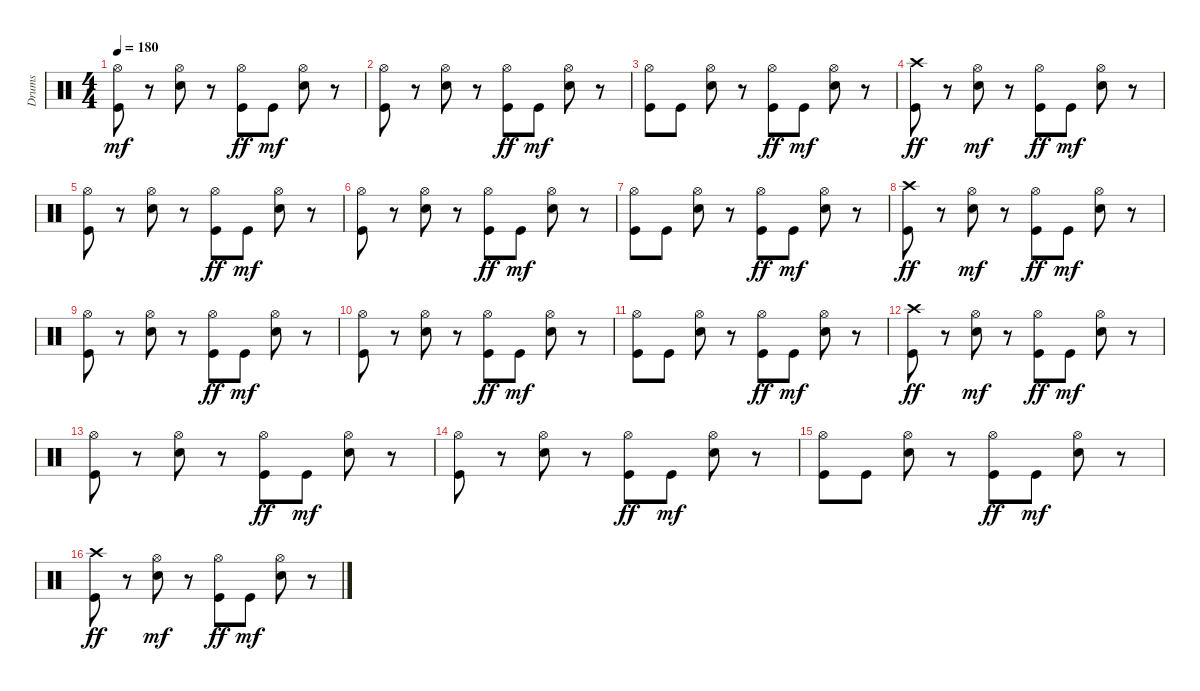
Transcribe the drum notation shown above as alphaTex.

\track ("Drums" "Drums") {instrument percussion}
\staff {score}
\articulation defaults
\ts (4 4)
\tempo 180
\clef neutral
\ks c
("Kick (hit)" "Hi-Hat (open)").8{dy mf} r.8 ("Hi-Hat (open)" "Snare (hit) 2").8 r.8 ("Hi-Hat (open)" "Kick (hit)").8{dy ff} "Kick (hit)".8{dy mf} ("Snare (hit) 2" "Hi-Hat (open)").8 r.8 |
("Kick (hit)" "Hi-Hat (open)").8 r.8 ("Hi-Hat (open)" "Snare (hit) 2").8 r.8 ("Hi-Hat (open)" "Kick (hit)").8{dy ff} "Kick (hit)".8{dy mf} ("Snare (hit) 2" "Hi-Hat (open)").8 r.8 |
("Kick (hit)" "Hi-Hat (open)").8 "Kick (hit)".8 ("Hi-Hat (open)" "Snare (hit) 2").8 r.8 ("Hi-Hat (open)" "Kick (hit)").8{dy ff} "Kick (hit)".8{dy mf} ("Hi-Hat (open)" "Snare (hit) 2").8 r.8 |
("Crash high (hit)" "Kick (hit)").8{dy ff} r.8 ("Hi-Hat (open)" "Snare (hit) 2").8{dy mf} r.8 ("Hi-Hat (open)" "Kick (hit)").8{dy ff} "Kick (hit)".8{dy mf} ("Hi-Hat (open)" "Snare (hit) 2").8 r.8 |
("Kick (hit)" "Hi-Hat (open)").8 r.8 ("Hi-Hat (open)" "Snare (hit) 2").8 r.8 ("Hi-Hat (open)" "Kick (hit)").8{dy ff} "Kick (hit)".8{dy mf} ("Snare (hit) 2" "Hi-Hat (open)").8 r.8 |
("Kick (hit)" "Hi-Hat (open)").8 r.8 ("Hi-Hat (open)" "Snare (hit) 2").8 r.8 ("Hi-Hat (open)" "Kick (hit)").8{dy ff} "Kick (hit)".8{dy mf} ("Snare (hit) 2" "Hi-Hat (open)").8 r.8 |
("Kick (hit)" "Hi-Hat (open)").8 "Kick (hit)".8 ("Hi-Hat (open)" "Snare (hit) 2").8 r.8 ("Hi-Hat (open)" "Kick (hit)").8{dy ff} "Kick (hit)".8{dy mf} ("Hi-Hat (open)" "Snare (hit) 2").8 r.8 |
("Crash high (hit)" "Kick (hit)").8{dy ff} r.8 ("Hi-Hat (open)" "Snare (hit) 2").8{dy mf} r.8 ("Hi-Hat (open)" "Kick (hit)").8{dy ff} "Kick (hit)".8{dy mf} ("Hi-Hat (open)" "Snare (hit) 2").8 r.8 |
("Kick (hit)" "Hi-Hat (open)").8 r.8 ("Hi-Hat (open)" "Snare (hit) 2").8 r.8 ("Hi-Hat (open)" "Kick (hit)").8{dy ff} "Kick (hit)".8{dy mf} ("Snare (hit) 2" "Hi-Hat (open)").8 r.8 |
("Kick (hit)" "Hi-Hat (open)").8 r.8 ("Hi-Hat (open)" "Snare (hit) 2").8 r.8 ("Hi-Hat (open)" "Kick (hit)").8{dy ff} "Kick (hit)".8{dy mf} ("Snare (hit) 2" "Hi-Hat (open)").8 r.8 |
("Kick (hit)" "Hi-Hat (open)").8 "Kick (hit)".8 ("Hi-Hat (open)" "Snare (hit) 2").8 r.8 ("Hi-Hat (open)" "Kick (hit)").8{dy ff} "Kick (hit)".8{dy mf} ("Hi-Hat (open)" "Snare (hit) 2").8 r.8 |
("Crash high (hit)" "Kick (hit)").8{dy ff} r.8 ("Hi-Hat (open)" "Snare (hit) 2").8{dy mf} r.8 ("Hi-Hat (open)" "Kick (hit)").8{dy ff} "Kick (hit)".8{dy mf} ("Hi-Hat (open)" "Snare (hit) 2").8 r.8 |
("Kick (hit)" "Hi-Hat (open)").8 r.8 ("Hi-Hat (open)" "Snare (hit) 2").8 r.8 ("Hi-Hat (open)" "Kick (hit)").8{dy ff} "Kick (hit)".8{dy mf} ("Snare (hit) 2" "Hi-Hat (open)").8 r.8 |
("Kick (hit)" "Hi-Hat (open)").8 r.8 ("Hi-Hat (open)" "Snare (hit) 2").8 r.8 ("Hi-Hat (open)" "Kick (hit)").8{dy ff} "Kick (hit)".8{dy mf} ("Snare (hit) 2" "Hi-Hat (open)").8 r.8 |
("Kick (hit)" "Hi-Hat (open)").8 "Kick (hit)".8 ("Hi-Hat (open)" "Snare (hit) 2").8 r.8 ("Hi-Hat (open)" "Kick (hit)").8{dy ff} "Kick (hit)".8{dy mf} ("Hi-Hat (open)" "Snare (hit) 2").8 r.8 |
("Crash high (hit)" "Kick (hit)").8{dy ff} r.8 ("Hi-Hat (open)" "Snare (hit) 2").8{dy mf} r.8 ("Hi-Hat (open)" "Kick (hit)").8{dy ff} "Kick (hit)".8{dy mf} ("Hi-Hat (open)" "Snare (hit) 2").8 r.8
